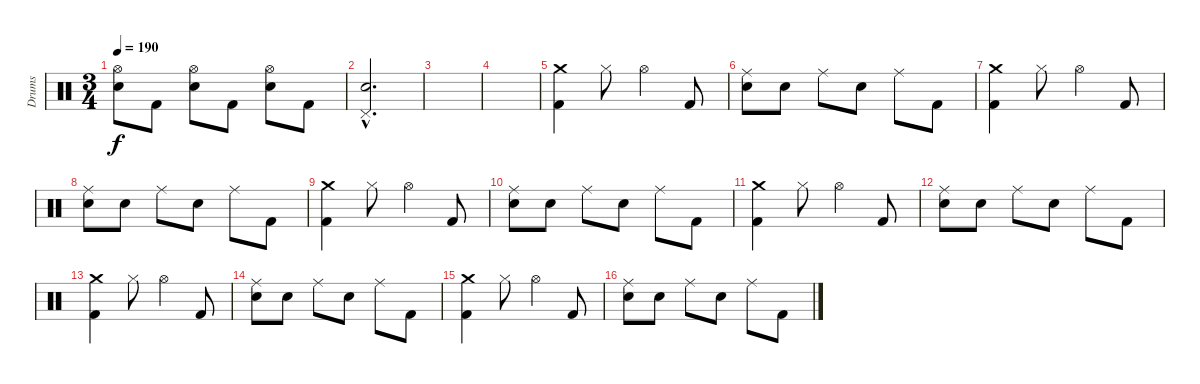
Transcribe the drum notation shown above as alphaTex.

\track ("Drums" "Drums") {instrument percussion}
\staff {score}
\articulation defaults
\ts (3 4)
\tempo 190
\clef neutral
\ks c
("Hi-Hat (open)" "Snare (hit) 2").8{dy f} "Kick (hit) 2".8 ("Hi-Hat (open)" "Snare (hit) 2").8 "Kick (hit) 2".8 ("Hi-Hat (open)" "Snare (hit) 2").8 "Kick (hit) 2".8 |
("Pedal Hi-Hat (hit)"{hac} "Snare (hit) 2"{hac}).2{d} |
|
|
("Crash medium (hit)" "Kick (hit) 2").4 "Hi-Hat (closed)".8 "Hi-Hat (open)".4 "Kick (hit) 2".8 |
("Ride (middle)" "Snare (hit) 2").8 "Snare (hit) 2".8 "Ride (middle)".8 "Snare (hit) 2".8 "Ride (middle)".8 "Kick (hit) 2".8 |
("Crash medium (hit)" "Kick (hit) 2").4 "Hi-Hat (closed)".8 "Hi-Hat (open)".4 "Kick (hit) 2".8 |
("Ride (middle)" "Snare (hit) 2").8 "Snare (hit) 2".8 "Ride (middle)".8 "Snare (hit) 2".8 "Ride (middle)".8 "Kick (hit) 2".8 |
("Crash medium (hit)" "Kick (hit) 2").4 "Hi-Hat (closed)".8 "Hi-Hat (open)".4 "Kick (hit) 2".8 |
("Ride (middle)" "Snare (hit) 2").8 "Snare (hit) 2".8 "Ride (middle)".8 "Snare (hit) 2".8 "Ride (middle)".8 "Kick (hit) 2".8 |
("Crash medium (hit)" "Kick (hit) 2").4 "Hi-Hat (closed)".8 "Hi-Hat (open)".4 "Kick (hit) 2".8 |
("Ride (middle)" "Snare (hit) 2").8 "Snare (hit) 2".8 "Ride (middle)".8 "Snare (hit) 2".8 "Ride (middle)".8 "Kick (hit) 2".8 |
("Crash medium (hit)" "Kick (hit) 2").4 "Hi-Hat (closed)".8 "Hi-Hat (open)".4 "Kick (hit) 2".8 |
("Ride (middle)" "Snare (hit) 2").8 "Snare (hit) 2".8 "Ride (middle)".8 "Snare (hit) 2".8 "Ride (middle)".8 "Kick (hit) 2".8 |
("Crash medium (hit)" "Kick (hit) 2").4 "Hi-Hat (closed)".8 "Hi-Hat (open)".4 "Kick (hit) 2".8 |
("Ride (middle)" "Snare (hit) 2").8 "Snare (hit) 2".8 "Ride (middle)".8 "Snare (hit) 2".8 "Ride (middle)".8 "Kick (hit) 2".8
